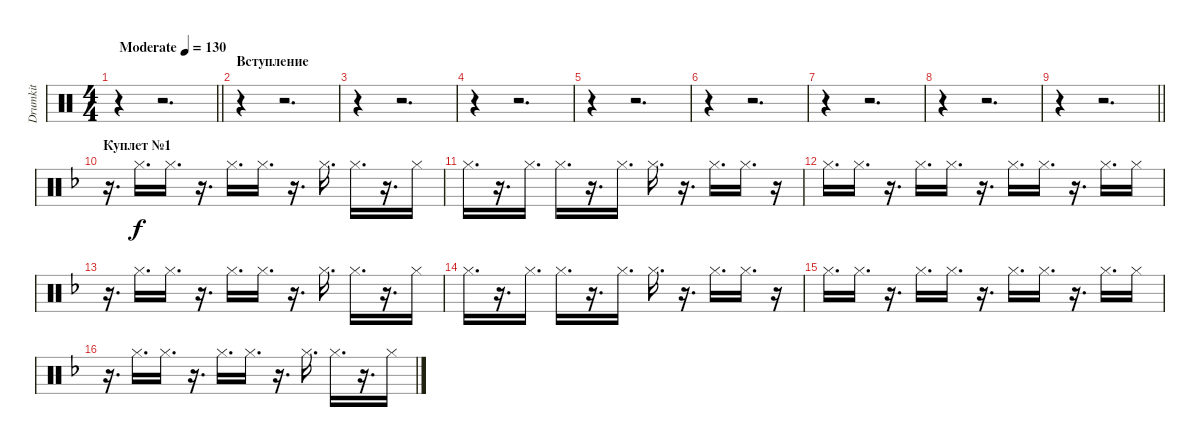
\track ("Drumkit" "Drumkit") {instrument percussion}
\staff {score}
\articulation defaults
\ts (4 4)
\tempo (130 "Moderate")
\clef neutral
\barLineRight lightlight
\ks c
r.4{dy f} r.2{d} |
\section ("" "Вступление")
r.4 r.2{d} |
r.4 r.2{d} |
r.4 r.2{d} |
r.4 r.2{d} |
r.4 r.2{d} |
r.4 r.2{d} |
r.4 r.2{d} |
\barLineRight lightlight
r.4 r.2{d} |
\section ("" "Куплет №1")
\ks f
r.16{d} "Hi-Hat (closed)".16{d} "Hi-Hat (closed)".16{d} r.16{d} "Hi-Hat (closed)".16{d} "Hi-Hat (closed)".16{d} r.16{d} "Hi-Hat (closed)".16{d} "Hi-Hat (closed)".16{d} r.16{d} "Hi-Hat (closed)".16 |
"Hi-Hat (closed)".16{d} r.16{d} "Hi-Hat (closed)".16{d} "Hi-Hat (closed)".16{d} r.16{d} "Hi-Hat (closed)".16{d} "Hi-Hat (closed)".16{d} r.16{d} "Hi-Hat (closed)".16{d} "Hi-Hat (closed)".16{d} r.16 |
"Hi-Hat (closed)".16{d} "Hi-Hat (closed)".16{d} r.16{d} "Hi-Hat (closed)".16{d} "Hi-Hat (closed)".16{d} r.16{d} "Hi-Hat (closed)".16{d} "Hi-Hat (closed)".16{d} r.16{d} "Hi-Hat (closed)".16{d} "Hi-Hat (closed)".16 |
r.16{d} "Hi-Hat (closed)".16{d} "Hi-Hat (closed)".16{d} r.16{d} "Hi-Hat (closed)".16{d} "Hi-Hat (closed)".16{d} r.16{d} "Hi-Hat (closed)".16{d} "Hi-Hat (closed)".16{d} r.16{d} "Hi-Hat (closed)".16 |
"Hi-Hat (closed)".16{d} r.16{d} "Hi-Hat (closed)".16{d} "Hi-Hat (closed)".16{d} r.16{d} "Hi-Hat (closed)".16{d} "Hi-Hat (closed)".16{d} r.16{d} "Hi-Hat (closed)".16{d} "Hi-Hat (closed)".16{d} r.16 |
"Hi-Hat (closed)".16{d} "Hi-Hat (closed)".16{d} r.16{d} "Hi-Hat (closed)".16{d} "Hi-Hat (closed)".16{d} r.16{d} "Hi-Hat (closed)".16{d} "Hi-Hat (closed)".16{d} r.16{d} "Hi-Hat (closed)".16{d} "Hi-Hat (closed)".16 |
r.16{d} "Hi-Hat (closed)".16{d} "Hi-Hat (closed)".16{d} r.16{d} "Hi-Hat (closed)".16{d} "Hi-Hat (closed)".16{d} r.16{d} "Hi-Hat (closed)".16{d} "Hi-Hat (closed)".16{d} r.16{d} "Hi-Hat (closed)".16
